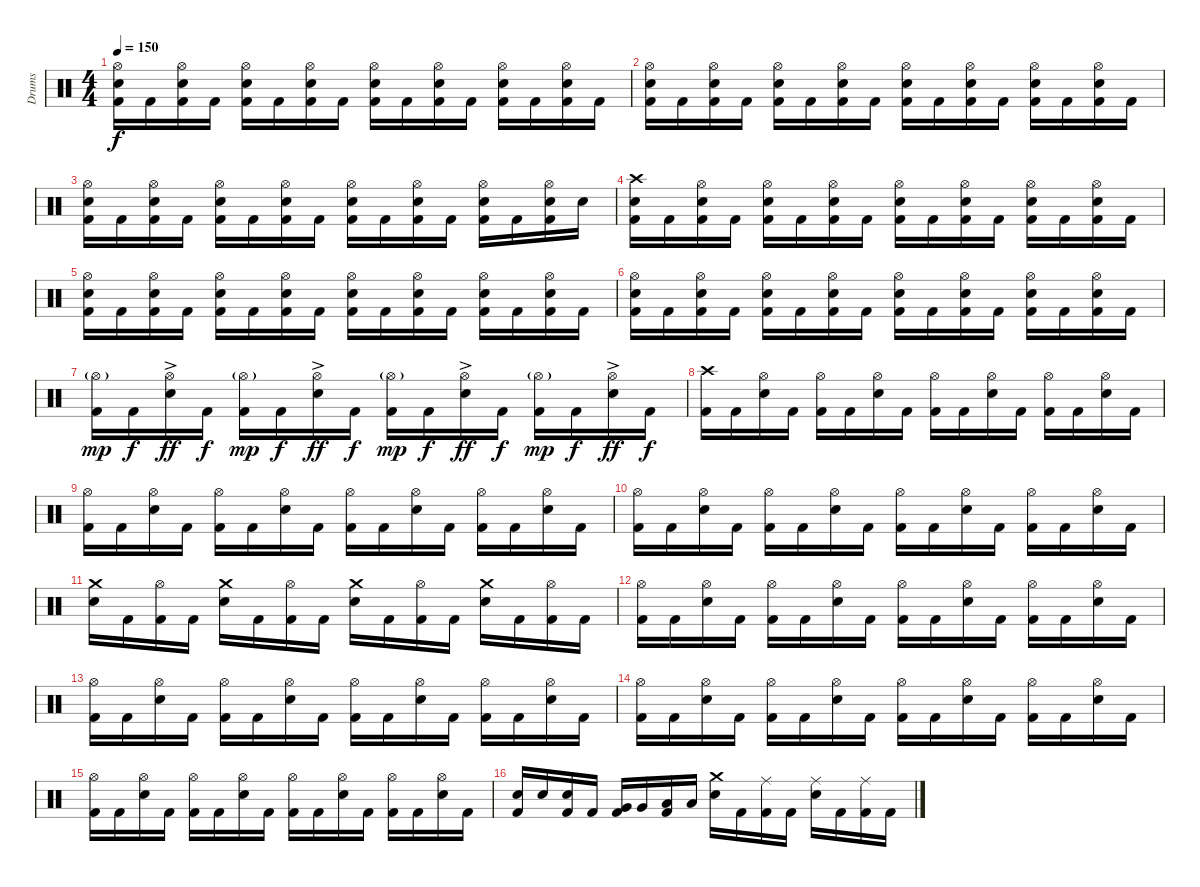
\track ("Drums" "Drums") {instrument percussion}
\staff {score}
\articulation defaults
\ts (4 4)
\tempo 150
\clef neutral
\ks c
("Hi-Hat (open)" "Electric Snare (hit)" "Kick (hit) 2").16{dy f} "Kick (hit) 2".16 ("Hi-Hat (open)" "Electric Snare (hit)" "Kick (hit) 2").16 "Kick (hit) 2".16 ("Hi-Hat (open)" "Electric Snare (hit)" "Kick (hit) 2").16 "Kick (hit) 2".16 ("Hi-Hat (open)" "Electric Snare (hit)" "Kick (hit) 2").16 "Kick (hit) 2".16 ("Hi-Hat (open)" "Electric Snare (hit)" "Kick (hit) 2").16 "Kick (hit) 2".16 ("Hi-Hat (open)" "Electric Snare (hit)" "Kick (hit) 2").16 "Kick (hit) 2".16 ("Hi-Hat (open)" "Electric Snare (hit)" "Kick (hit) 2").16 "Kick (hit) 2".16 ("Hi-Hat (open)" "Electric Snare (hit)" "Kick (hit) 2").16 "Kick (hit) 2".16 |
("Hi-Hat (open)" "Electric Snare (hit)" "Kick (hit) 2").16 "Kick (hit) 2".16 ("Hi-Hat (open)" "Electric Snare (hit)" "Kick (hit) 2").16 "Kick (hit) 2".16 ("Hi-Hat (open)" "Electric Snare (hit)" "Kick (hit) 2").16 "Kick (hit) 2".16 ("Hi-Hat (open)" "Electric Snare (hit)" "Kick (hit) 2").16 "Kick (hit) 2".16 ("Hi-Hat (open)" "Electric Snare (hit)" "Kick (hit) 2").16 "Kick (hit) 2".16 ("Hi-Hat (open)" "Electric Snare (hit)" "Kick (hit) 2").16 "Kick (hit) 2".16 ("Hi-Hat (open)" "Electric Snare (hit)" "Kick (hit) 2").16 "Kick (hit) 2".16 ("Hi-Hat (open)" "Electric Snare (hit)" "Kick (hit) 2").16 "Kick (hit) 2".16 |
("Hi-Hat (open)" "Electric Snare (hit)" "Kick (hit) 2").16 "Kick (hit) 2".16 ("Hi-Hat (open)" "Electric Snare (hit)" "Kick (hit) 2").16 "Kick (hit) 2".16 ("Hi-Hat (open)" "Electric Snare (hit)" "Kick (hit) 2").16 "Kick (hit) 2".16 ("Hi-Hat (open)" "Electric Snare (hit)" "Kick (hit) 2").16 "Kick (hit) 2".16 ("Hi-Hat (open)" "Electric Snare (hit)" "Kick (hit) 2").16 "Kick (hit) 2".16 ("Hi-Hat (open)" "Electric Snare (hit)" "Kick (hit) 2").16 "Kick (hit) 2".16 ("Hi-Hat (open)" "Electric Snare (hit)" "Kick (hit) 2").16 "Kick (hit) 2".16 ("Hi-Hat (open)" "Electric Snare (hit)" "Kick (hit) 2").16 "Electric Snare (hit)".16 |
("Crash high (hit)" "Electric Snare (hit)" "Kick (hit) 2").16 "Kick (hit) 2".16 ("Hi-Hat (open)" "Electric Snare (hit)" "Kick (hit) 2").16 "Kick (hit) 2".16 ("Hi-Hat (open)" "Electric Snare (hit)" "Kick (hit) 2").16 "Kick (hit) 2".16 ("Hi-Hat (open)" "Electric Snare (hit)" "Kick (hit) 2").16 "Kick (hit) 2".16 ("Hi-Hat (open)" "Electric Snare (hit)" "Kick (hit) 2").16 "Kick (hit) 2".16 ("Hi-Hat (open)" "Electric Snare (hit)" "Kick (hit) 2").16 "Kick (hit) 2".16 ("Hi-Hat (open)" "Electric Snare (hit)" "Kick (hit) 2").16 "Kick (hit) 2".16 ("Hi-Hat (open)" "Electric Snare (hit)" "Kick (hit) 2").16 "Kick (hit) 2".16 |
("Hi-Hat (open)" "Electric Snare (hit)" "Kick (hit) 2").16 "Kick (hit) 2".16 ("Hi-Hat (open)" "Electric Snare (hit)" "Kick (hit) 2").16 "Kick (hit) 2".16 ("Hi-Hat (open)" "Electric Snare (hit)" "Kick (hit) 2").16 "Kick (hit) 2".16 ("Hi-Hat (open)" "Electric Snare (hit)" "Kick (hit) 2").16 "Kick (hit) 2".16 ("Hi-Hat (open)" "Electric Snare (hit)" "Kick (hit) 2").16 "Kick (hit) 2".16 ("Hi-Hat (open)" "Electric Snare (hit)" "Kick (hit) 2").16 "Kick (hit) 2".16 ("Hi-Hat (open)" "Electric Snare (hit)" "Kick (hit) 2").16 "Kick (hit) 2".16 ("Hi-Hat (open)" "Electric Snare (hit)" "Kick (hit) 2").16 "Kick (hit) 2".16 |
("Hi-Hat (open)" "Electric Snare (hit)" "Kick (hit) 2").16 "Kick (hit) 2".16 ("Hi-Hat (open)" "Electric Snare (hit)" "Kick (hit) 2").16 "Kick (hit) 2".16 ("Hi-Hat (open)" "Electric Snare (hit)" "Kick (hit) 2").16 "Kick (hit) 2".16 ("Hi-Hat (open)" "Electric Snare (hit)" "Kick (hit) 2").16 "Kick (hit) 2".16 ("Hi-Hat (open)" "Electric Snare (hit)" "Kick (hit) 2").16 "Kick (hit) 2".16 ("Hi-Hat (open)" "Electric Snare (hit)" "Kick (hit) 2").16 "Kick (hit) 2".16 ("Hi-Hat (open)" "Electric Snare (hit)" "Kick (hit) 2").16 "Kick (hit) 2".16 ("Hi-Hat (open)" "Electric Snare (hit)" "Kick (hit) 2").16 "Kick (hit) 2".16 |
("Hi-Hat (open)"{g} "Kick (hit) 2").16{dy mp} "Kick (hit) 2".16{dy f} ("Hi-Hat (open)"{ac} "Electric Snare (hit)").16{dy ff} "Kick (hit) 2".16{dy f} ("Hi-Hat (open)"{g} "Kick (hit) 2").16{dy mp} "Kick (hit) 2".16{dy f} ("Hi-Hat (open)"{ac} "Electric Snare (hit)").16{dy ff} "Kick (hit) 2".16{dy f} ("Hi-Hat (open)"{g} "Kick (hit) 2").16{dy mp} "Kick (hit) 2".16{dy f} ("Hi-Hat (open)"{ac} "Electric Snare (hit)").16{dy ff} "Kick (hit) 2".16{dy f} ("Hi-Hat (open)"{g} "Kick (hit) 2").16{dy mp} "Kick (hit) 2".16{dy f} ("Hi-Hat (open)"{ac} "Electric Snare (hit)").16{dy ff} "Kick (hit) 2".16{dy f} |
("Crash high (hit)" "Kick (hit) 2").16 "Kick (hit) 2".16 ("Hi-Hat (open)" "Electric Snare (hit)").16 "Kick (hit) 2".16 ("Hi-Hat (open)" "Kick (hit) 2").16 "Kick (hit) 2".16 ("Hi-Hat (open)" "Electric Snare (hit)").16 "Kick (hit) 2".16 ("Hi-Hat (open)" "Kick (hit) 2").16 "Kick (hit) 2".16 ("Hi-Hat (open)" "Electric Snare (hit)").16 "Kick (hit) 2".16 ("Hi-Hat (open)" "Kick (hit) 2").16 "Kick (hit) 2".16 ("Hi-Hat (open)" "Electric Snare (hit)").16 "Kick (hit) 2".16 |
("Hi-Hat (open)" "Kick (hit) 2").16 "Kick (hit) 2".16 ("Hi-Hat (open)" "Electric Snare (hit)").16 "Kick (hit) 2".16 ("Hi-Hat (open)" "Kick (hit) 2").16 "Kick (hit) 2".16 ("Hi-Hat (open)" "Electric Snare (hit)").16 "Kick (hit) 2".16 ("Hi-Hat (open)" "Kick (hit) 2").16 "Kick (hit) 2".16 ("Hi-Hat (open)" "Electric Snare (hit)").16 "Kick (hit) 2".16 ("Hi-Hat (open)" "Kick (hit) 2").16 "Kick (hit) 2".16 ("Hi-Hat (open)" "Electric Snare (hit)").16 "Kick (hit) 2".16 |
("Hi-Hat (open)" "Kick (hit) 2").16 "Kick (hit) 2".16 ("Hi-Hat (open)" "Electric Snare (hit)").16 "Kick (hit) 2".16 ("Hi-Hat (open)" "Kick (hit) 2").16 "Kick (hit) 2".16 ("Hi-Hat (open)" "Electric Snare (hit)").16 "Kick (hit) 2".16 ("Hi-Hat (open)" "Kick (hit) 2").16 "Kick (hit) 2".16 ("Hi-Hat (open)" "Electric Snare (hit)").16 "Kick (hit) 2".16 ("Hi-Hat (open)" "Kick (hit) 2").16 "Kick (hit) 2".16 ("Hi-Hat (open)" "Electric Snare (hit)").16 "Kick (hit) 2".16 |
("Crash medium (hit)" "Electric Snare (hit)").16 "Kick (hit) 2".16 ("Hi-Hat (open)" "Kick (hit) 2").16 "Kick (hit) 2".16 ("Crash medium (hit)" "Electric Snare (hit)").16 "Kick (hit) 2".16 ("Hi-Hat (open)" "Kick (hit) 2").16 "Kick (hit) 2".16 ("Crash medium (hit)" "Electric Snare (hit)").16 "Kick (hit) 2".16 ("Hi-Hat (open)" "Kick (hit) 2").16 "Kick (hit) 2".16 ("Crash medium (hit)" "Electric Snare (hit)").16 "Kick (hit) 2".16 ("Hi-Hat (open)" "Kick (hit) 2").16 "Kick (hit) 2".16 |
("Hi-Hat (open)" "Kick (hit) 2").16 "Kick (hit) 2".16 ("Hi-Hat (open)" "Electric Snare (hit)").16 "Kick (hit) 2".16 ("Hi-Hat (open)" "Kick (hit) 2").16 "Kick (hit) 2".16 ("Hi-Hat (open)" "Electric Snare (hit)").16 "Kick (hit) 2".16 ("Hi-Hat (open)" "Kick (hit) 2").16 "Kick (hit) 2".16 ("Hi-Hat (open)" "Electric Snare (hit)").16 "Kick (hit) 2".16 ("Hi-Hat (open)" "Kick (hit) 2").16 "Kick (hit) 2".16 ("Hi-Hat (open)" "Electric Snare (hit)").16 "Kick (hit) 2".16 |
("Hi-Hat (open)" "Kick (hit) 2").16 "Kick (hit) 2".16 ("Hi-Hat (open)" "Electric Snare (hit)").16 "Kick (hit) 2".16 ("Hi-Hat (open)" "Kick (hit) 2").16 "Kick (hit) 2".16 ("Hi-Hat (open)" "Electric Snare (hit)").16 "Kick (hit) 2".16 ("Hi-Hat (open)" "Kick (hit) 2").16 "Kick (hit) 2".16 ("Hi-Hat (open)" "Electric Snare (hit)").16 "Kick (hit) 2".16 ("Hi-Hat (open)" "Kick (hit) 2").16 "Kick (hit) 2".16 ("Hi-Hat (open)" "Electric Snare (hit)").16 "Kick (hit) 2".16 |
("Hi-Hat (open)" "Kick (hit) 2").16 "Kick (hit) 2".16 ("Hi-Hat (open)" "Electric Snare (hit)").16 "Kick (hit) 2".16 ("Hi-Hat (open)" "Kick (hit) 2").16 "Kick (hit) 2".16 ("Hi-Hat (open)" "Electric Snare (hit)").16 "Kick (hit) 2".16 ("Hi-Hat (open)" "Kick (hit) 2").16 "Kick (hit) 2".16 ("Hi-Hat (open)" "Electric Snare (hit)").16 "Kick (hit) 2".16 ("Hi-Hat (open)" "Kick (hit) 2").16 "Kick (hit) 2".16 ("Hi-Hat (open)" "Electric Snare (hit)").16 "Kick (hit) 2".16 |
("Hi-Hat (open)" "Kick (hit) 2").16 "Kick (hit) 2".16 ("Hi-Hat (open)" "Electric Snare (hit)").16 "Kick (hit) 2".16 ("Hi-Hat (open)" "Kick (hit) 2").16 "Kick (hit) 2".16 ("Hi-Hat (open)" "Electric Snare (hit)").16 "Kick (hit) 2".16 ("Hi-Hat (open)" "Kick (hit) 2").16 "Kick (hit) 2".16 ("Hi-Hat (open)" "Electric Snare (hit)").16 "Kick (hit) 2".16 ("Hi-Hat (open)" "Kick (hit) 2").16 "Kick (hit) 2".16 ("Hi-Hat (open)" "Electric Snare (hit)").16 "Kick (hit) 2".16 |
("Electric Snare (hit)" "Kick (hit) 2").16 "Electric Snare (hit)".16 ("Electric Snare (hit)" "Kick (hit) 2").16 "Kick (hit) 2".16 ("Very Low Tom (hit)" "Kick (hit) 2").16 "Very Low Tom (hit)".16 ("Low Floor Tom (hit)" "Kick (hit) 2").16 "Low Floor Tom (hit)".16 ("Crash medium (hit)" "Electric Snare (hit)").16 "Kick (hit) 2".16 ("Ride (middle)" "Kick (hit) 2").16 "Kick (hit) 2".16 ("Ride (middle)" "Electric Snare (hit)").16 "Kick (hit) 2".16 ("Ride (middle)" "Kick (hit) 2").16 "Kick (hit) 2".16
